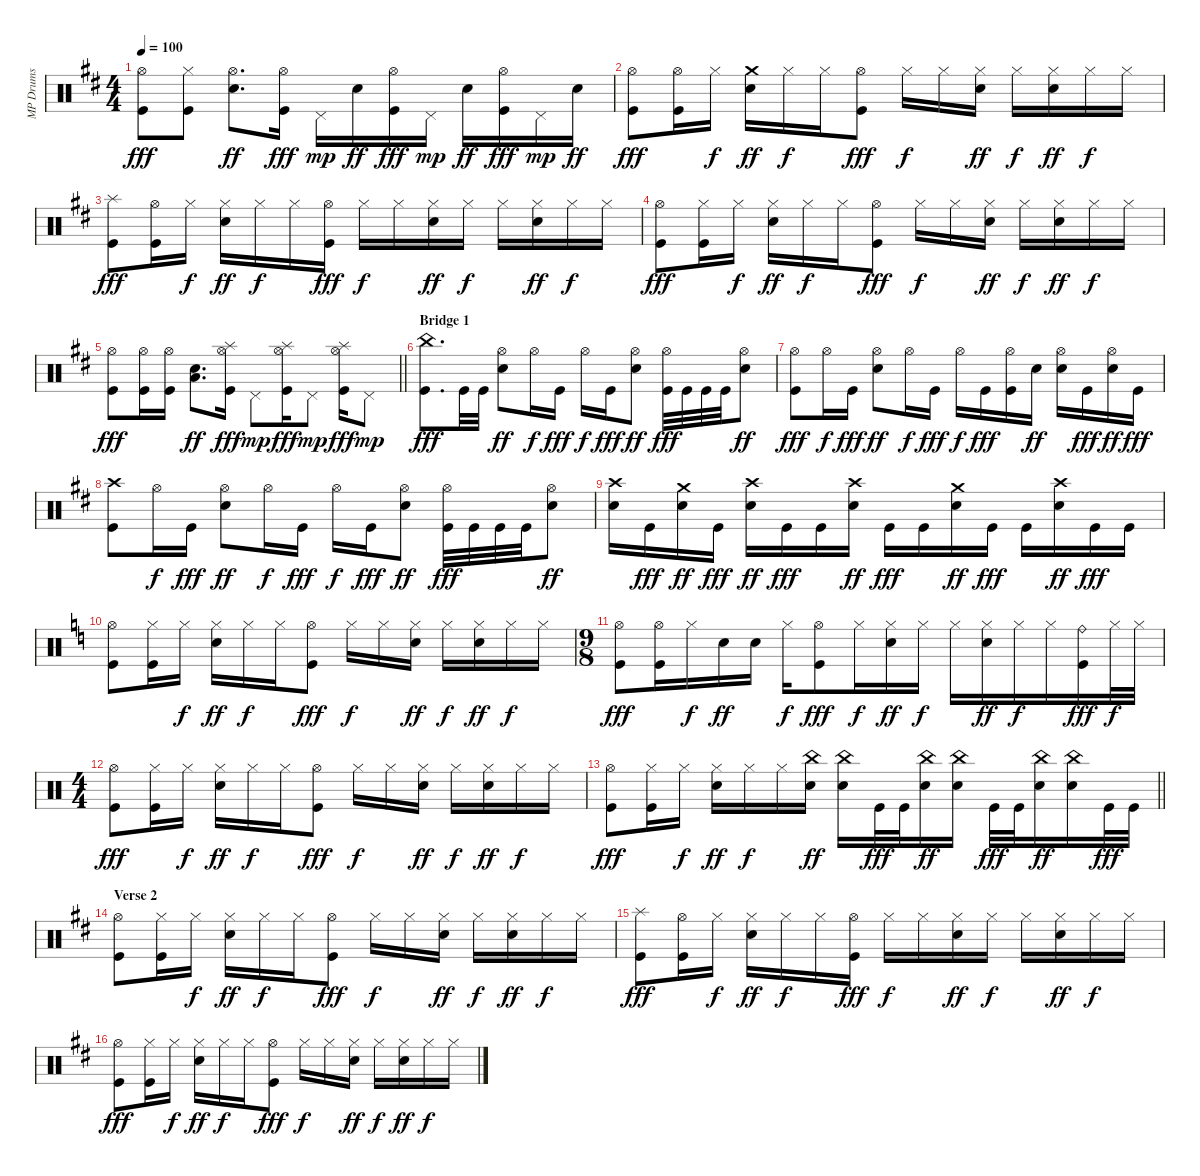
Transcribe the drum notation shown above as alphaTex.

\track ("MP Drums" "MP Drums") {instrument percussion}
\staff {score}
\articulation defaults
\ts (4 4)
\tempo 100
\clef neutral
\ks d
("Hi-Hat (open)" "Kick (hit)").8{dy fff} ("Hi-Hat (closed)" "Kick (hit)").8 ("Hi-Hat (open)" "Snare (hit) 2").8{d dy ff} ("Hi-Hat (open)" "Kick (hit)").16{dy fff} "Pedal Hi-Hat (hit)".16{dy mp} "Snare (hit) 2".16{dy ff} ("Hi-Hat (open)" "Kick (hit)").16{dy fff} "Pedal Hi-Hat (hit)".16{dy mp} "Snare (hit) 2".16{dy ff} ("Hi-Hat (open)" "Kick (hit)").16{dy fff} "Pedal Hi-Hat (hit)".16{dy mp} "Snare (hit) 2".16{dy ff} |
("Hi-Hat (open)" "Kick (hit)").8{dy fff} ("Hi-Hat (open)" "Kick (hit)").16 "Hi-Hat (closed)".16{dy f} ("Crash medium (hit)" "Snare (hit) 2").16{dy ff} "Hi-Hat (closed)".16{dy f} "Hi-Hat (closed)".16 ("Hi-Hat (open)" "Kick (hit)").8{dy fff} "Hi-Hat (closed)".16{dy f} "Hi-Hat (closed)".16 ("Hi-Hat (closed)" "Snare (hit) 2").16{dy ff} "Hi-Hat (closed)".16{dy f} ("Hi-Hat (closed)" "Snare (hit) 2").16{dy ff} "Hi-Hat (closed)".16{dy f} "Hi-Hat (closed)".16 |
("Splash (hit)" "Kick (hit)").8{dy fff} ("Hi-Hat (open)" "Kick (hit)").16 "Hi-Hat (closed)".16{dy f} ("Hi-Hat (closed)" "Snare (hit) 2").16{dy ff} "Hi-Hat (closed)".16{dy f} "Hi-Hat (closed)".16 ("Hi-Hat (open)" "Kick (hit)").16{dy fff} "Hi-Hat (closed)".16{dy f} "Hi-Hat (closed)".16 ("Hi-Hat (closed)" "Snare (hit) 2").16{dy ff} "Hi-Hat (closed)".16{dy f} "Hi-Hat (closed)".16 ("Hi-Hat (closed)" "Snare (hit) 2").16{dy ff} "Hi-Hat (closed)".16{dy f} "Hi-Hat (closed)".16 |
("Hi-Hat (open)" "Kick (hit)").8{dy fff} ("Hi-Hat (closed)" "Kick (hit)").16 "Hi-Hat (closed)".16{dy f} ("Hi-Hat (closed)" "Snare (hit) 2").16{dy ff} "Hi-Hat (closed)".16{dy f} "Hi-Hat (closed)".16 ("Hi-Hat (open)" "Kick (hit)").8{dy fff} "Hi-Hat (closed)".16{dy f} "Hi-Hat (closed)".16 ("Hi-Hat (closed)" "Snare (hit) 2").16{dy ff} "Hi-Hat (closed)".16{dy f} ("Hi-Hat (closed)" "Snare (hit) 2").16{dy ff} "Hi-Hat (closed)".16{dy f} "Hi-Hat (closed)".16 |
\barLineRight lightlight
("Hi-Hat (open)" "Kick (hit)").8{dy fff} ("Hi-Hat (open)" "Kick (hit)").16 ("Hi-Hat (open)" "Kick (hit)").16 ("Snare (hit) 2" "Low Tom (hit)").8{d dy ff} ("Hi-Hat (open)" "Splash (hit)" "Kick (hit)").16{dy fff} "Pedal Hi-Hat (hit)".8{dy mp} ("Hi-Hat (open)" "Splash (hit)" "Kick (hit)").16{dy fff} "Pedal Hi-Hat (hit)".8{dy mp} ("Hi-Hat (open)" "Splash (hit)" "Kick (hit)").16{dy fff} "Pedal Hi-Hat (hit)".8{dy mp} |
\section ("" "Bridge 1")
("China (hit)" "Kick (hit)").8{d dy fff} "Kick (hit)".32 "Kick (hit)".32 ("Hi-Hat (open)" "Snare (hit) 2").8{dy ff} "Hi-Hat (open)".16{dy f} "Kick (hit)".16{dy fff} "Hi-Hat (open)".16{dy f} "Kick (hit)".16{dy fff} ("Hi-Hat (open)" "Snare (hit) 2").8{dy ff} ("Hi-Hat (open)" "Kick (hit)").32{dy fff} "Kick (hit)".32 "Kick (hit)".32 "Kick (hit)".32 ("Hi-Hat (open)" "Snare (hit) 2").8{dy ff} |
("Hi-Hat (open)" "Kick (hit)").8{dy fff} "Hi-Hat (open)".16{dy f} "Kick (hit)".16{dy fff} ("Hi-Hat (open)" "Snare (hit) 2").8{dy ff} "Hi-Hat (open)".16{dy f} "Kick (hit)".16{dy fff} "Hi-Hat (open)".16{dy f} "Kick (hit)".16{dy fff} ("Hi-Hat (open)" "Kick (hit)").16 "Snare (hit) 2".16{dy ff} ("Hi-Hat (open)" "Snare (hit) 2").16 "Kick (hit)".16{dy fff} ("Hi-Hat (open)" "Snare (hit) 2").16{dy ff} "Kick (hit)".16{dy fff} |
("Crash high (hit)" "Kick (hit)").8 "Hi-Hat (open)".16{dy f} "Kick (hit)".16{dy fff} ("Hi-Hat (open)" "Snare (hit) 2").8{dy ff} "Hi-Hat (open)".16{dy f} "Kick (hit)".16{dy fff} "Hi-Hat (open)".16{dy f} "Kick (hit)".16{dy fff} ("Hi-Hat (open)" "Snare (hit) 2").8{dy ff} ("Hi-Hat (open)" "Kick (hit)").32{dy fff} "Kick (hit)".32 "Kick (hit)".32 "Kick (hit)".32 ("Hi-Hat (open)" "Snare (hit) 2").8{dy ff} |
("Crash high (hit)" "Snare (hit) 2").16 "Kick (hit)".16{dy fff} ("Crash medium (hit)" "Snare (hit) 2").16{dy ff} "Kick (hit)".16{dy fff} ("Crash high (hit)" "Snare (hit) 2").16{dy ff} "Kick (hit)".16{dy fff} "Kick (hit)".16 ("Crash high (hit)" "Snare (hit) 2").16{dy ff} "Kick (hit)".16{dy fff} "Kick (hit)".16 ("Crash medium (hit)" "Snare (hit) 2").16{dy ff} "Kick (hit)".16{dy fff} "Kick (hit)".16 ("Crash high (hit)" "Snare (hit) 2").16{dy ff} "Kick (hit)".16{dy fff} "Kick (hit)".16 |
\ks c
("Hi-Hat (open)" "Kick (hit)").8 ("Hi-Hat (closed)" "Kick (hit)").16 "Hi-Hat (closed)".16{dy f} ("Hi-Hat (closed)" "Snare (hit) 2").16{dy ff} "Hi-Hat (closed)".16{dy f} "Hi-Hat (closed)".16 ("Hi-Hat (open)" "Kick (hit)").8{dy fff} "Hi-Hat (closed)".16{dy f} "Hi-Hat (closed)".16 ("Hi-Hat (closed)" "Snare (hit) 2").16{dy ff} "Hi-Hat (closed)".16{dy f} ("Hi-Hat (closed)" "Snare (hit) 2").16{dy ff} "Hi-Hat (closed)".16{dy f} "Hi-Hat (closed)".16 |
\ts (9 8)
("Hi-Hat (open)" "Kick (hit)").8{dy fff} ("Hi-Hat (open)" "Kick (hit)").16 "Hi-Hat (closed)".16{dy f} "Snare (hit) 2".16{dy ff} "Snare (hit) 2".16 "Hi-Hat (closed)".16{dy f} ("Hi-Hat (open)" "Kick (hit)").8{dy fff} "Hi-Hat (closed)".16{dy f} ("Hi-Hat (closed)" "Snare (hit) 2").16{dy ff} "Hi-Hat (closed)".16{dy f} "Hi-Hat (closed)".16 ("Hi-Hat (closed)" "Snare (hit) 2").16{dy ff} "Hi-Hat (closed)".16{dy f} "Hi-Hat (closed)".16 ("Ride (bell)" "Kick (hit)").16{dy fff} "Hi-Hat (closed)".32{dy f} "Hi-Hat (closed)".32 |
\ts (4 4)
("Hi-Hat (open)" "Kick (hit)").8{dy fff} ("Hi-Hat (closed)" "Kick (hit)").16 "Hi-Hat (closed)".16{dy f} ("Hi-Hat (closed)" "Snare (hit) 2").16{dy ff} "Hi-Hat (closed)".16{dy f} "Hi-Hat (closed)".16 ("Hi-Hat (open)" "Kick (hit)").8{dy fff} "Hi-Hat (closed)".16{dy f} "Hi-Hat (closed)".16 ("Hi-Hat (closed)" "Snare (hit) 2").16{dy ff} "Hi-Hat (closed)".16{dy f} ("Hi-Hat (closed)" "Snare (hit) 2").16{dy ff} "Hi-Hat (closed)".16{dy f} "Hi-Hat (closed)".16 |
\barLineRight lightlight
("Hi-Hat (open)" "Kick (hit)").8{dy fff} ("Hi-Hat (closed)" "Kick (hit)").16 "Hi-Hat (closed)".16{dy f} ("Hi-Hat (closed)" "Snare (hit) 2").16{dy ff} "Hi-Hat (closed)".16{dy f} "Hi-Hat (closed)".16 ("China (hit)" "Snare (hit) 2").16{dy ff} ("China (hit)" "Snare (hit) 2").16 "Kick (hit)".32{dy fff} "Kick (hit)".32 ("China (hit)" "Snare (hit) 2").16{dy ff} ("China (hit)" "Snare (hit) 2").16 "Kick (hit)".32{dy fff} "Kick (hit)".32 ("China (hit)" "Snare (hit) 2").16{dy ff} ("China (hit)" "Snare (hit) 2").16 "Kick (hit)".32{dy fff} "Kick (hit)".32 |
\section ("" "Verse 2")
\ks d
("Hi-Hat (open)" "Kick (hit)").8 ("Hi-Hat (closed)" "Kick (hit)").16 "Hi-Hat (closed)".16{dy f} ("Hi-Hat (closed)" "Snare (hit) 2").16{dy ff} "Hi-Hat (closed)".16{dy f} "Hi-Hat (closed)".16 ("Hi-Hat (open)" "Kick (hit)").8{dy fff} "Hi-Hat (closed)".16{dy f} "Hi-Hat (closed)".16 ("Hi-Hat (closed)" "Snare (hit) 2").16{dy ff} "Hi-Hat (closed)".16{dy f} ("Hi-Hat (closed)" "Snare (hit) 2").16{dy ff} "Hi-Hat (closed)".16{dy f} "Hi-Hat (closed)".16 |
("Splash (hit)" "Kick (hit)").8{dy fff} ("Hi-Hat (open)" "Kick (hit)").16 "Hi-Hat (closed)".16{dy f} ("Hi-Hat (closed)" "Snare (hit) 2").16{dy ff} "Hi-Hat (closed)".16{dy f} "Hi-Hat (closed)".16 ("Hi-Hat (open)" "Kick (hit)").16{dy fff} "Hi-Hat (closed)".16{dy f} "Hi-Hat (closed)".16 ("Hi-Hat (closed)" "Snare (hit) 2").16{dy ff} "Hi-Hat (closed)".16{dy f} "Hi-Hat (closed)".16 ("Hi-Hat (closed)" "Snare (hit) 2").16{dy ff} "Hi-Hat (closed)".16{dy f} "Hi-Hat (closed)".16 |
("Hi-Hat (open)" "Kick (hit)").8{dy fff} ("Hi-Hat (closed)" "Kick (hit)").16 "Hi-Hat (closed)".16{dy f} ("Hi-Hat (closed)" "Snare (hit) 2").16{dy ff} "Hi-Hat (closed)".16{dy f} "Hi-Hat (closed)".16 ("Hi-Hat (open)" "Kick (hit)").8{dy fff} "Hi-Hat (closed)".16{dy f} "Hi-Hat (closed)".16 ("Hi-Hat (closed)" "Snare (hit) 2").16{dy ff} "Hi-Hat (closed)".16{dy f} ("Hi-Hat (closed)" "Snare (hit) 2").16{dy ff} "Hi-Hat (closed)".16{dy f} "Hi-Hat (closed)".16
